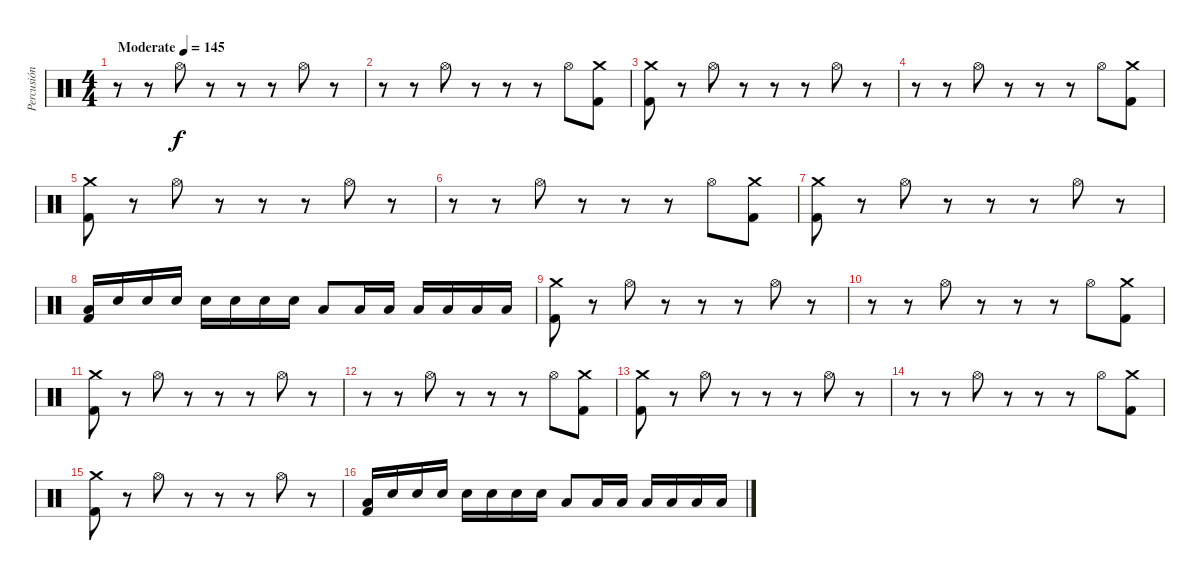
\track ("Percusión" "Percusión") {instrument percussion}
\staff {score}
\articulation defaults
\ts (4 4)
\tempo (145 "Moderate")
\clef neutral
\ks c
r.8{dy f} r.8 "Hi-Hat (open)".8 r.8 r.8 r.8 "Hi-Hat (open)".8 r.8 |
r.8 r.8 "Hi-Hat (open)".8 r.8 r.8 r.8 "Hi-Hat (open)".8 ("Crash medium (hit)" "Kick (hit) 2").8 |
("Crash medium (hit)" "Kick (hit) 2").8 r.8 "Hi-Hat (open)".8 r.8 r.8 r.8 "Hi-Hat (open)".8 r.8 |
r.8 r.8 "Hi-Hat (open)".8 r.8 r.8 r.8 "Hi-Hat (open)".8 ("Crash medium (hit)" "Kick (hit) 2").8 |
("Crash medium (hit)" "Kick (hit) 2").8 r.8 "Hi-Hat (open)".8 r.8 r.8 r.8 "Hi-Hat (open)".8 r.8 |
r.8 r.8 "Hi-Hat (open)".8 r.8 r.8 r.8 "Hi-Hat (open)".8 ("Crash medium (hit)" "Kick (hit) 2").8 |
("Crash medium (hit)" "Kick (hit) 2").8 r.8 "Hi-Hat (open)".8 r.8 r.8 r.8 "Hi-Hat (open)".8 r.8 |
("Low Floor Tom (hit)" "Kick (hit) 2").16 "Snare (hit) 2".16 "Snare (hit) 2".16 "Snare (hit) 2".16 "Snare (hit) 2".16 "Snare (hit) 2".16 "Snare (hit) 2".16 "Snare (hit) 2".16 "Low Tom (hit)".8 "Low Tom (hit)".16 "Low Tom (hit)".16 "Low Tom (hit)".16 "Low Tom (hit)".16 "Low Tom (hit)".16 "Low Tom (hit)".16 |
("Crash medium (hit)" "Kick (hit) 2").8 r.8 "Hi-Hat (open)".8 r.8 r.8 r.8 "Hi-Hat (open)".8 r.8 |
r.8 r.8 "Hi-Hat (open)".8 r.8 r.8 r.8 "Hi-Hat (open)".8 ("Crash medium (hit)" "Kick (hit) 2").8 |
("Crash medium (hit)" "Kick (hit) 2").8 r.8 "Hi-Hat (open)".8 r.8 r.8 r.8 "Hi-Hat (open)".8 r.8 |
r.8 r.8 "Hi-Hat (open)".8 r.8 r.8 r.8 "Hi-Hat (open)".8 ("Crash medium (hit)" "Kick (hit) 2").8 |
("Crash medium (hit)" "Kick (hit) 2").8 r.8 "Hi-Hat (open)".8 r.8 r.8 r.8 "Hi-Hat (open)".8 r.8 |
r.8 r.8 "Hi-Hat (open)".8 r.8 r.8 r.8 "Hi-Hat (open)".8 ("Crash medium (hit)" "Kick (hit) 2").8 |
("Crash medium (hit)" "Kick (hit) 2").8 r.8 "Hi-Hat (open)".8 r.8 r.8 r.8 "Hi-Hat (open)".8 r.8 |
("Low Floor Tom (hit)" "Kick (hit) 2").16 "Snare (hit) 2".16 "Snare (hit) 2".16 "Snare (hit) 2".16 "Snare (hit) 2".16 "Snare (hit) 2".16 "Snare (hit) 2".16 "Snare (hit) 2".16 "Low Tom (hit)".8 "Low Tom (hit)".16 "Low Tom (hit)".16 "Low Tom (hit)".16 "Low Tom (hit)".16 "Low Tom (hit)".16 "Low Tom (hit)".16
